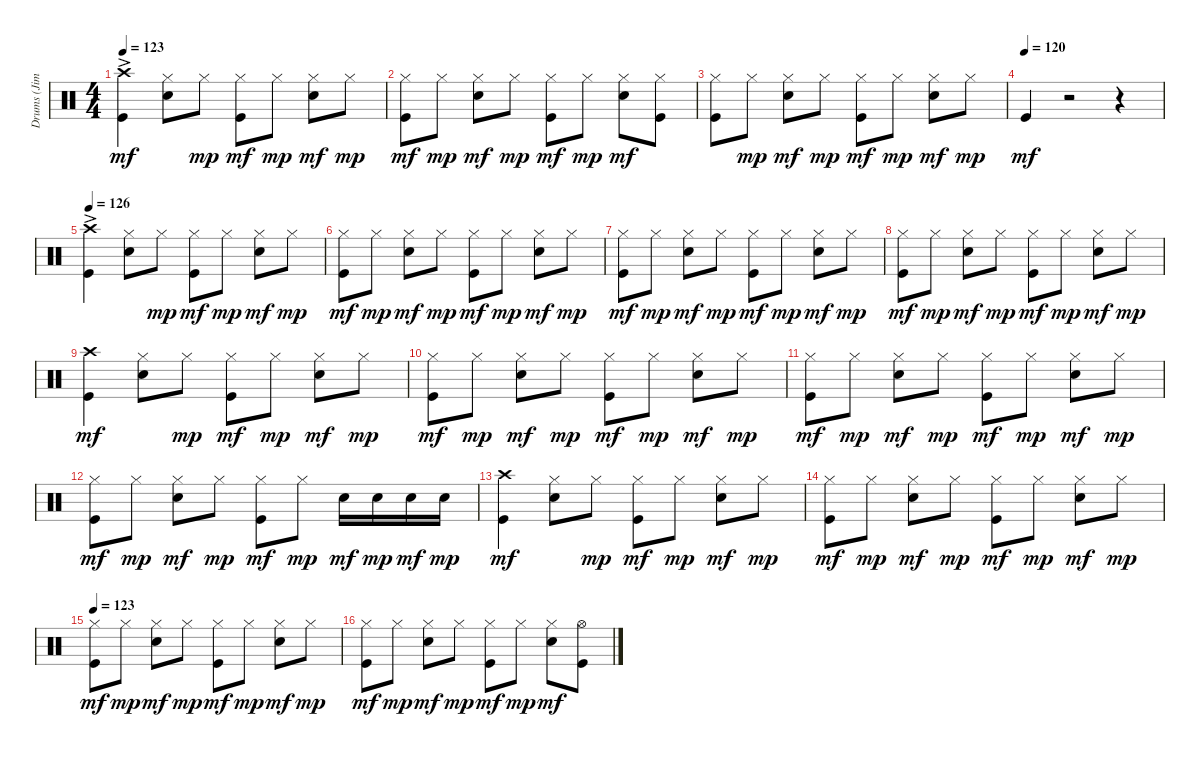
\track ("Drums (Jim Keltner)" "Drums (Jim") {instrument percussion}
\staff {score}
\articulation defaults
\ts (4 4)
\tempo 123
\clef neutral
\ks c
("Crash high (hit)"{ac} "Kick (hit)").4{dy mf} ("Hi-Hat (closed)" "Snare (hit) 2").8 "Hi-Hat (closed)".8{dy mp} ("Hi-Hat (closed)" "Kick (hit)").8{dy mf} "Hi-Hat (closed)".8{dy mp} ("Hi-Hat (closed)" "Snare (hit) 2").8{dy mf} "Hi-Hat (closed)".8{dy mp} |
("Hi-Hat (closed)" "Kick (hit)").8{dy mf} "Hi-Hat (closed)".8{dy mp} ("Hi-Hat (closed)" "Snare (hit) 2").8{dy mf} "Hi-Hat (closed)".8{dy mp} ("Hi-Hat (closed)" "Kick (hit)").8{dy mf} "Hi-Hat (closed)".8{dy mp} ("Hi-Hat (closed)" "Snare (hit) 2").8{dy mf} ("Hi-Hat (closed)" "Kick (hit)").8 |
("Hi-Hat (closed)" "Kick (hit)").8 "Hi-Hat (closed)".8{dy mp} ("Hi-Hat (closed)" "Snare (hit) 2").8{dy mf} "Hi-Hat (closed)".8{dy mp} ("Hi-Hat (closed)" "Kick (hit)").8{dy mf} "Hi-Hat (closed)".8{dy mp} ("Hi-Hat (closed)" "Snare (hit) 2").8{dy mf} "Hi-Hat (closed)".8{dy mp} |
\tempo (120)
"Kick (hit)".4{dy mf} r.2 r.4 |
\tempo 126
("Crash high (hit)"{ac} "Kick (hit)").4 ("Hi-Hat (closed)" "Snare (hit) 2").8 "Hi-Hat (closed)".8{dy mp} ("Hi-Hat (closed)" "Kick (hit)").8{dy mf} "Hi-Hat (closed)".8{dy mp} ("Hi-Hat (closed)" "Snare (hit) 2").8{dy mf} "Hi-Hat (closed)".8{dy mp} |
("Hi-Hat (closed)" "Kick (hit)").8{dy mf} "Hi-Hat (closed)".8{dy mp} ("Hi-Hat (closed)" "Snare (hit) 2").8{dy mf} "Hi-Hat (closed)".8{dy mp} ("Hi-Hat (closed)" "Kick (hit)").8{dy mf} "Hi-Hat (closed)".8{dy mp} ("Hi-Hat (closed)" "Snare (hit) 2").8{dy mf} "Hi-Hat (closed)".8{dy mp} |
("Hi-Hat (closed)" "Kick (hit)").8{dy mf} "Hi-Hat (closed)".8{dy mp} ("Hi-Hat (closed)" "Snare (hit) 2").8{dy mf} "Hi-Hat (closed)".8{dy mp} ("Hi-Hat (closed)" "Kick (hit)").8{dy mf} "Hi-Hat (closed)".8{dy mp} ("Hi-Hat (closed)" "Snare (hit) 2").8{dy mf} "Hi-Hat (closed)".8{dy mp} |
("Hi-Hat (closed)" "Kick (hit)").8{dy mf} "Hi-Hat (closed)".8{dy mp} ("Hi-Hat (closed)" "Snare (hit) 2").8{dy mf} "Hi-Hat (closed)".8{dy mp} ("Hi-Hat (closed)" "Kick (hit)").8{dy mf} "Hi-Hat (closed)".8{dy mp} ("Hi-Hat (closed)" "Snare (hit) 2").8{dy mf} "Hi-Hat (closed)".8{dy mp} |
("Crash high (hit)" "Kick (hit)").4{dy mf} ("Hi-Hat (closed)" "Snare (hit) 2").8 "Hi-Hat (closed)".8{dy mp} ("Hi-Hat (closed)" "Kick (hit)").8{dy mf} "Hi-Hat (closed)".8{dy mp} ("Hi-Hat (closed)" "Snare (hit) 2").8{dy mf} "Hi-Hat (closed)".8{dy mp} |
("Hi-Hat (closed)" "Kick (hit)").8{dy mf} "Hi-Hat (closed)".8{dy mp} ("Hi-Hat (closed)" "Snare (hit) 2").8{dy mf} "Hi-Hat (closed)".8{dy mp} ("Hi-Hat (closed)" "Kick (hit)").8{dy mf} "Hi-Hat (closed)".8{dy mp} ("Hi-Hat (closed)" "Snare (hit) 2").8{dy mf} "Hi-Hat (closed)".8{dy mp} |
("Hi-Hat (closed)" "Kick (hit)").8{dy mf} "Hi-Hat (closed)".8{dy mp} ("Hi-Hat (closed)" "Snare (hit) 2").8{dy mf} "Hi-Hat (closed)".8{dy mp} ("Hi-Hat (closed)" "Kick (hit)").8{dy mf} "Hi-Hat (closed)".8{dy mp} ("Hi-Hat (closed)" "Snare (hit) 2").8{dy mf} "Hi-Hat (closed)".8{dy mp} |
("Hi-Hat (closed)" "Kick (hit)").8{dy mf} "Hi-Hat (closed)".8{dy mp} ("Hi-Hat (closed)" "Snare (hit) 2").8{dy mf} "Hi-Hat (closed)".8{dy mp} ("Hi-Hat (closed)" "Kick (hit)").8{dy mf} "Hi-Hat (closed)".8{dy mp} "Snare (hit) 2".16{dy mf} "Snare (hit) 2".16{dy mp} "Snare (hit) 2".16{dy mf} "Snare (hit) 2".16{dy mp} |
("Crash high (hit)" "Kick (hit)").4{dy mf} ("Hi-Hat (closed)" "Snare (hit) 2").8 "Hi-Hat (closed)".8{dy mp} ("Hi-Hat (closed)" "Kick (hit)").8{dy mf} "Hi-Hat (closed)".8{dy mp} ("Hi-Hat (closed)" "Snare (hit) 2").8{dy mf} "Hi-Hat (closed)".8{dy mp} |
("Hi-Hat (closed)" "Kick (hit)").8{dy mf} "Hi-Hat (closed)".8{dy mp} ("Hi-Hat (closed)" "Snare (hit) 2").8{dy mf} "Hi-Hat (closed)".8{dy mp} ("Hi-Hat (closed)" "Kick (hit)").8{dy mf} "Hi-Hat (closed)".8{dy mp} ("Hi-Hat (closed)" "Snare (hit) 2").8{dy mf} "Hi-Hat (closed)".8{dy mp} |
\tempo 123
("Hi-Hat (closed)" "Kick (hit)").8{dy mf} "Hi-Hat (closed)".8{dy mp} ("Hi-Hat (closed)" "Snare (hit) 2").8{dy mf} "Hi-Hat (closed)".8{dy mp} ("Hi-Hat (closed)" "Kick (hit)").8{dy mf} "Hi-Hat (closed)".8{dy mp} ("Hi-Hat (closed)" "Snare (hit) 2").8{dy mf} "Hi-Hat (closed)".8{dy mp} |
("Hi-Hat (closed)" "Kick (hit)").8{dy mf} "Hi-Hat (closed)".8{dy mp} ("Hi-Hat (closed)" "Snare (hit) 2").8{dy mf} "Hi-Hat (closed)".8{dy mp} ("Hi-Hat (closed)" "Kick (hit)").8{dy mf} "Hi-Hat (closed)".8{dy mp} ("Hi-Hat (closed)" "Snare (hit) 2").8{dy mf} ("Hi-Hat (open)" "Kick (hit)").8
